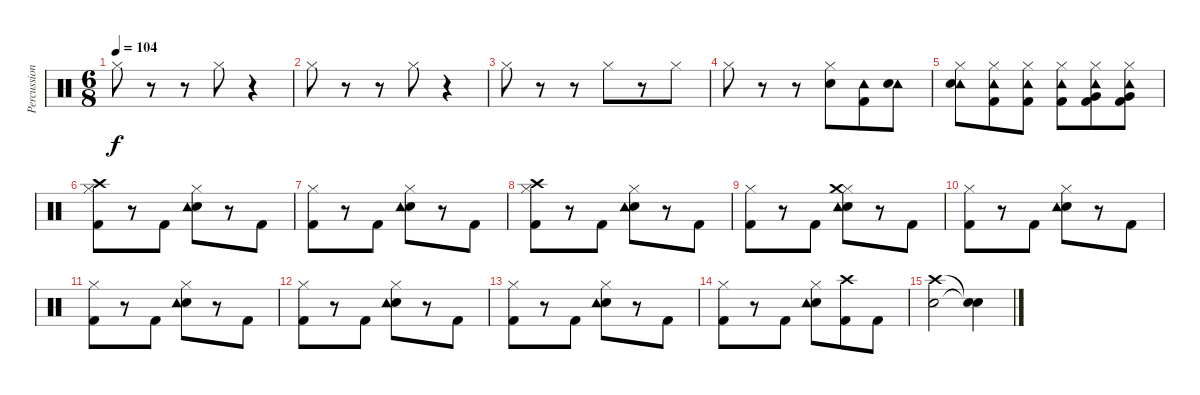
\track ("Percussion" "Percussion") {instrument percussion}
\staff {score}
\articulation defaults
\ts (6 8)
\tempo 104
\clef neutral
\ks c "Hi-Hat (closed)".8{dy f}
r.8 r.8 "Hi-Hat (closed)".8 r.4 |
"Hi-Hat (closed)".8 r.8 r.8 "Hi-Hat (closed)".8 r.4 |
"Hi-Hat (closed)".8 r.8 r.8 "Hi-Hat (closed)".8 r.8 "Hi-Hat (closed)".8 |
"Hi-Hat (closed)".8 r.8 r.8 ("Snare (hit) 2" "Hi-Hat (closed)").8 ("Tambourine (hit)" "Kick (hit) 2").8 ("Tambourine (hit)" "Snare (hit) 2").8 |
("Hi-Hat (closed)" "Tambourine (hit)" "Snare (hit) 2").8 ("Hi-Hat (closed)" "Tambourine (hit)" "Kick (hit) 2").8 ("Hi-Hat (closed)" "Tambourine (hit)" "Kick (hit) 2").8 ("Hi-Hat (closed)" "Tambourine (hit)" "Kick (hit) 2").8 ("Hi-Hat (closed)" "Tambourine (hit)" "Kick (hit) 2" "Very Low Tom (hit)").8 ("Hi-Hat (closed)" "Tambourine (hit)" "Kick (hit) 2" "Very Low Tom (hit)").8 |
("Hi-Hat (closed)" "Crash high (hit)" "Kick (hit) 2").8 r.8 "Kick (hit) 2".8 ("Snare (hit) 2" "Tambourine (hit)" "Hi-Hat (closed)").8 r.8 "Kick (hit) 2".8 |
("Hi-Hat (closed)" "Kick (hit) 2").8 r.8 "Kick (hit) 2".8 ("Snare (hit) 2" "Tambourine (hit)" "Hi-Hat (closed)").8 r.8 "Kick (hit) 2".8 |
("Hi-Hat (closed)" "Crash high (hit)" "Kick (hit) 2").8 r.8 "Kick (hit) 2".8 ("Snare (hit) 2" "Tambourine (hit)" "Hi-Hat (closed)").8 r.8 "Kick (hit) 2".8 |
("Hi-Hat (closed)" "Kick (hit) 2").8 r.8 "Kick (hit) 2".8 ("Snare (hit) 2" "Tambourine (hit)" "Hi-Hat (closed)" "Crash medium (hit)").8 r.8 "Kick (hit) 2".8 |
("Hi-Hat (closed)" "Kick (hit) 2").8 r.8 "Kick (hit) 2".8 ("Snare (hit) 2" "Tambourine (hit)" "Hi-Hat (closed)").8 r.8 "Kick (hit) 2".8 |
("Hi-Hat (closed)" "Kick (hit) 2").8 r.8 "Kick (hit) 2".8 ("Snare (hit) 2" "Tambourine (hit)" "Hi-Hat (closed)").8 r.8 "Kick (hit) 2".8 |
("Hi-Hat (closed)" "Kick (hit) 2").8 r.8 "Kick (hit) 2".8 ("Snare (hit) 2" "Tambourine (hit)" "Hi-Hat (closed)").8 r.8 "Kick (hit) 2".8 |
("Hi-Hat (closed)" "Kick (hit) 2").8 r.8 "Kick (hit) 2".8 ("Snare (hit) 2" "Tambourine (hit)" "Hi-Hat (closed)").8 r.8 "Kick (hit) 2".8 |
("Hi-Hat (closed)" "Kick (hit) 2").8 r.8 "Kick (hit) 2".8 ("Snare (hit) 2" "Tambourine (hit)" "Hi-Hat (closed)").8 ("Crash high (hit)" "Kick (hit) 2").8 "Kick (hit) 2".8 |
("Snare (hit) 2" "Crash high (hit)").2 ("Snare (hit)"{t} "Snare (hit)"{t}).4
